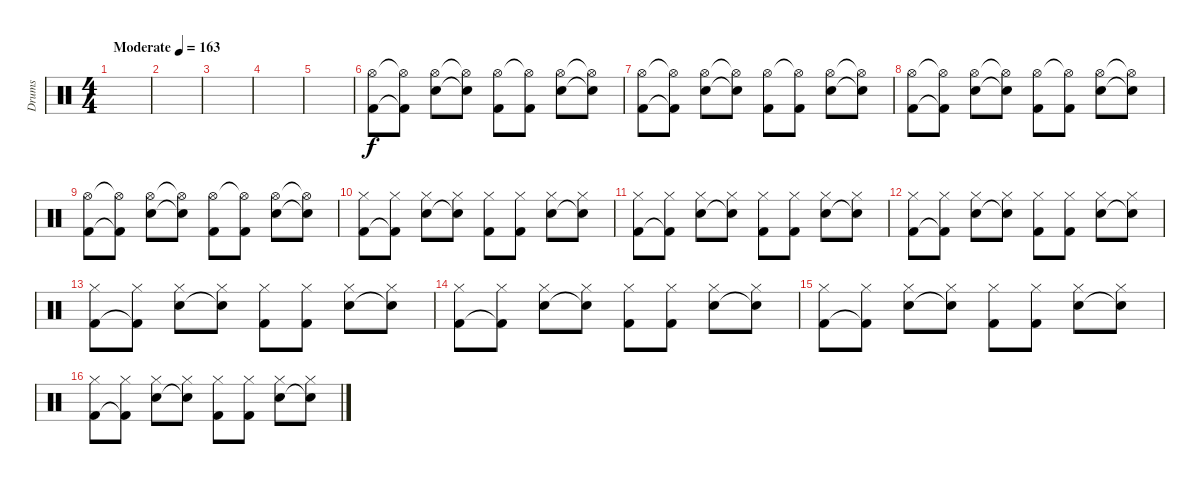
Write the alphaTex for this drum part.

\track ("Drums" "Drums") {instrument percussion}
\staff {score}
\articulation defaults
\ts (4 4)
\tempo (163 "Moderate")
\clef neutral
\ks c
|
|
|
|
|
("Kick (hit) 2" "Hi-Hat (open)").8 ("Kick (hit) 2"{t} "Hi-Hat (open)"{t}).8 ("Snare (hit) 2" "Hi-Hat (open)").8 ("Snare (hit) 2"{t} "Hi-Hat (open)"{t}).8 ("Kick (hit) 2" "Hi-Hat (open)").8 ("Kick (hit) 2" "Hi-Hat (open)"{t}).8 ("Snare (hit) 2" "Hi-Hat (open)").8 ("Snare (hit) 2"{t} "Hi-Hat (open)"{t}).8 |
("Kick (hit) 2" "Hi-Hat (open)").8 ("Kick (hit) 2"{t} "Hi-Hat (open)"{t}).8 ("Snare (hit) 2" "Hi-Hat (open)").8 ("Snare (hit) 2"{t} "Hi-Hat (open)"{t}).8 ("Kick (hit) 2" "Hi-Hat (open)").8 ("Kick (hit) 2" "Hi-Hat (open)"{t}).8 ("Snare (hit) 2" "Hi-Hat (open)").8 ("Snare (hit) 2"{t} "Hi-Hat (open)"{t}).8 |
("Kick (hit) 2" "Hi-Hat (open)").8 ("Kick (hit) 2"{t} "Hi-Hat (open)"{t}).8 ("Snare (hit) 2" "Hi-Hat (open)").8 ("Snare (hit) 2"{t} "Hi-Hat (open)"{t}).8 ("Kick (hit) 2" "Hi-Hat (open)").8 ("Kick (hit) 2" "Hi-Hat (open)"{t}).8 ("Snare (hit) 2" "Hi-Hat (open)").8 ("Snare (hit) 2"{t} "Hi-Hat (open)"{t}).8 |
("Kick (hit) 2" "Hi-Hat (open)").8 ("Kick (hit) 2"{t} "Hi-Hat (open)"{t}).8 ("Snare (hit) 2" "Hi-Hat (open)").8 ("Snare (hit) 2"{t} "Hi-Hat (open)"{t}).8 ("Kick (hit) 2" "Hi-Hat (open)").8 ("Kick (hit) 2" "Hi-Hat (open)"{t}).8 ("Snare (hit) 2" "Hi-Hat (open)").8 ("Snare (hit) 2"{t} "Hi-Hat (open)"{t}).8 |
("Kick (hit) 2" "Hi-Hat (closed)").8 ("Kick (hit) 2"{t} "Hi-Hat (closed)").8 ("Snare (hit) 2" "Hi-Hat (closed)").8 ("Snare (hit) 2"{t} "Hi-Hat (closed)").8 ("Kick (hit) 2" "Hi-Hat (closed)").8 ("Kick (hit) 2" "Hi-Hat (closed)").8 ("Snare (hit) 2" "Hi-Hat (closed)").8 ("Snare (hit) 2"{t} "Hi-Hat (closed)").8 |
("Kick (hit) 2" "Hi-Hat (closed)").8 ("Kick (hit) 2"{t} "Hi-Hat (closed)").8 ("Snare (hit) 2" "Hi-Hat (closed)").8 ("Snare (hit) 2"{t} "Hi-Hat (closed)").8 ("Kick (hit) 2" "Hi-Hat (closed)").8 ("Kick (hit) 2" "Hi-Hat (closed)").8 ("Snare (hit) 2" "Hi-Hat (closed)").8 ("Snare (hit) 2"{t} "Hi-Hat (closed)").8 |
("Kick (hit) 2" "Hi-Hat (closed)").8 ("Kick (hit) 2"{t} "Hi-Hat (closed)").8 ("Snare (hit) 2" "Hi-Hat (closed)").8 ("Snare (hit) 2"{t} "Hi-Hat (closed)").8 ("Kick (hit) 2" "Hi-Hat (closed)").8 ("Kick (hit) 2" "Hi-Hat (closed)").8 ("Snare (hit) 2" "Hi-Hat (closed)").8 ("Snare (hit) 2"{t} "Hi-Hat (closed)").8 |
("Kick (hit) 2" "Hi-Hat (closed)").8 ("Kick (hit) 2"{t} "Hi-Hat (closed)").8 ("Snare (hit) 2" "Hi-Hat (closed)").8 ("Snare (hit) 2"{t} "Hi-Hat (closed)").8 ("Kick (hit) 2" "Hi-Hat (closed)").8 ("Kick (hit) 2" "Hi-Hat (closed)").8 ("Snare (hit) 2" "Hi-Hat (closed)").8 ("Snare (hit) 2"{t} "Hi-Hat (closed)").8 |
("Kick (hit) 2" "Hi-Hat (closed)").8 ("Kick (hit) 2"{t} "Hi-Hat (closed)").8 ("Snare (hit) 2" "Hi-Hat (closed)").8 ("Snare (hit) 2"{t} "Hi-Hat (closed)").8 ("Kick (hit) 2" "Hi-Hat (closed)").8 ("Kick (hit) 2" "Hi-Hat (closed)").8 ("Snare (hit) 2" "Hi-Hat (closed)").8 ("Snare (hit) 2"{t} "Hi-Hat (closed)").8 |
("Kick (hit) 2" "Hi-Hat (closed)").8 ("Kick (hit) 2"{t} "Hi-Hat (closed)").8 ("Snare (hit) 2" "Hi-Hat (closed)").8 ("Snare (hit) 2"{t} "Hi-Hat (closed)").8 ("Kick (hit) 2" "Hi-Hat (closed)").8 ("Kick (hit) 2" "Hi-Hat (closed)").8 ("Snare (hit) 2" "Hi-Hat (closed)").8 ("Snare (hit) 2"{t} "Hi-Hat (closed)").8 |
("Kick (hit) 2" "Hi-Hat (closed)").8 ("Kick (hit) 2"{t} "Hi-Hat (closed)").8 ("Snare (hit) 2" "Hi-Hat (closed)").8 ("Snare (hit) 2"{t} "Hi-Hat (closed)").8 ("Kick (hit) 2" "Hi-Hat (closed)").8 ("Kick (hit) 2" "Hi-Hat (closed)").8 ("Snare (hit) 2" "Hi-Hat (closed)").8 ("Snare (hit) 2"{t} "Hi-Hat (closed)").8
